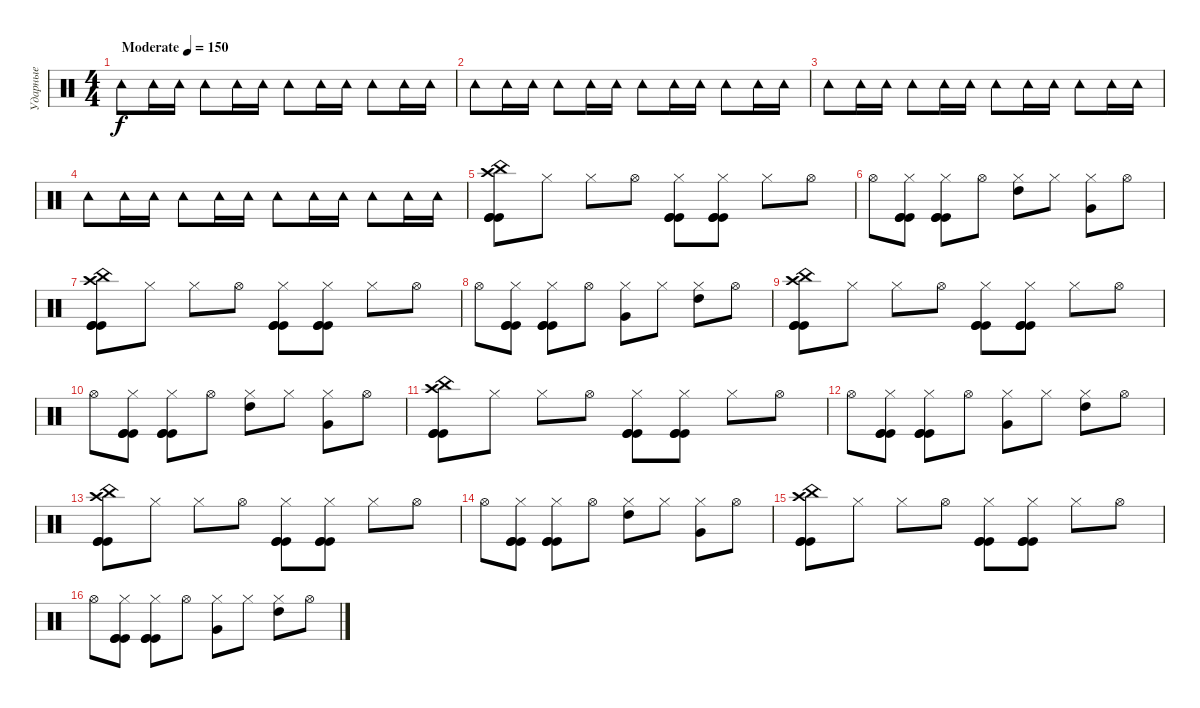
\track ("Ударные" "Ударные") {instrument percussion}
\staff {score}
\articulation defaults
\ts (4 4)
\tempo (150 "Moderate")
\clef neutral
\ks c "Tambourine (hit)".8{dy f} "Tambourine (hit)".16 "Tambourine (hit)".16 "Tambourine (hit)".8 "Tambourine (hit)".16 "Tambourine (hit)".16 "Tambourine (hit)".8 "Tambourine (hit)".16 "Tambourine (hit)".16 "Tambourine (hit)".8 "Tambourine (hit)".16 "Tambourine (hit)".16
|
"Tambourine (hit)".8 "Tambourine (hit)".16 "Tambourine (hit)".16 "Tambourine (hit)".8 "Tambourine (hit)".16 "Tambourine (hit)".16 "Tambourine (hit)".8 "Tambourine (hit)".16 "Tambourine (hit)".16 "Tambourine (hit)".8 "Tambourine (hit)".16 "Tambourine (hit)".16 |
"Tambourine (hit)".8 "Tambourine (hit)".16 "Tambourine (hit)".16 "Tambourine (hit)".8 "Tambourine (hit)".16 "Tambourine (hit)".16 "Tambourine (hit)".8 "Tambourine (hit)".16 "Tambourine (hit)".16 "Tambourine (hit)".8 "Tambourine (hit)".16 "Tambourine (hit)".16 |
"Tambourine (hit)".8 "Tambourine (hit)".16 "Tambourine (hit)".16 "Tambourine (hit)".8 "Tambourine (hit)".16 "Tambourine (hit)".16 "Tambourine (hit)".8 "Tambourine (hit)".16 "Tambourine (hit)".16 "Tambourine (hit)".8 "Tambourine (hit)".16 "Tambourine (hit)".16 |
("Crash high (hit)" "China (hit)" "Kick (hit)" "Kick (hit)" "Kick (hit)").8 "Hi-Hat (closed)".8 "Hi-Hat (closed)".8 "Hi-Hat (open)".8 ("Hi-Hat (closed)" "Kick (hit)" "Kick (hit)" "Kick (hit)").8 ("Hi-Hat (closed)" "Kick (hit)" "Kick (hit)" "Kick (hit)").8 "Hi-Hat (closed)".8 "Hi-Hat (open)".8 |
"Hi-Hat (open)".8 ("Hi-Hat (closed)" "Kick (hit)" "Kick (hit)" "Kick (hit)").8 ("Hi-Hat (closed)" "Kick (hit)" "Kick (hit)" "Kick (hit)").8 "Hi-Hat (open)".8 ("Hi-Hat (closed)" "High Tom (hit)").8 "Hi-Hat (closed)".8 ("Hi-Hat (closed)" "Very Low Tom (hit)").8 "Hi-Hat (open)".8 |
("Crash high (hit)" "China (hit)" "Kick (hit)" "Kick (hit)" "Kick (hit)").8 "Hi-Hat (closed)".8 "Hi-Hat (closed)".8 "Hi-Hat (open)".8 ("Hi-Hat (closed)" "Kick (hit)" "Kick (hit)" "Kick (hit)").8 ("Hi-Hat (closed)" "Kick (hit)" "Kick (hit)" "Kick (hit)").8 "Hi-Hat (closed)".8 "Hi-Hat (open)".8 |
"Hi-Hat (open)".8 ("Hi-Hat (closed)" "Kick (hit)" "Kick (hit)" "Kick (hit)").8 ("Hi-Hat (closed)" "Kick (hit)" "Kick (hit)" "Kick (hit)").8 "Hi-Hat (open)".8 ("Hi-Hat (closed)" "Very Low Tom (hit)").8 "Hi-Hat (closed)".8 ("Hi-Hat (closed)" "High Tom (hit)").8 "Hi-Hat (open)".8 |
("Crash high (hit)" "China (hit)" "Kick (hit)" "Kick (hit)" "Kick (hit)").8 "Hi-Hat (closed)".8 "Hi-Hat (closed)".8 "Hi-Hat (open)".8 ("Hi-Hat (closed)" "Kick (hit)" "Kick (hit)" "Kick (hit)").8 ("Hi-Hat (closed)" "Kick (hit)" "Kick (hit)" "Kick (hit)").8 "Hi-Hat (closed)".8 "Hi-Hat (open)".8 |
"Hi-Hat (open)".8 ("Hi-Hat (closed)" "Kick (hit)" "Kick (hit)" "Kick (hit)").8 ("Hi-Hat (closed)" "Kick (hit)" "Kick (hit)" "Kick (hit)").8 "Hi-Hat (open)".8 ("Hi-Hat (closed)" "High Tom (hit)").8 "Hi-Hat (closed)".8 ("Hi-Hat (closed)" "Very Low Tom (hit)").8 "Hi-Hat (open)".8 |
("Crash high (hit)" "China (hit)" "Kick (hit)" "Kick (hit)" "Kick (hit)").8 "Hi-Hat (closed)".8 "Hi-Hat (closed)".8 "Hi-Hat (open)".8 ("Hi-Hat (closed)" "Kick (hit)" "Kick (hit)" "Kick (hit)").8 ("Hi-Hat (closed)" "Kick (hit)" "Kick (hit)" "Kick (hit)").8 "Hi-Hat (closed)".8 "Hi-Hat (open)".8 |
"Hi-Hat (open)".8 ("Hi-Hat (closed)" "Kick (hit)" "Kick (hit)" "Kick (hit)").8 ("Hi-Hat (closed)" "Kick (hit)" "Kick (hit)" "Kick (hit)").8 "Hi-Hat (open)".8 ("Hi-Hat (closed)" "Very Low Tom (hit)").8 "Hi-Hat (closed)".8 ("Hi-Hat (closed)" "High Tom (hit)").8 "Hi-Hat (open)".8 |
("Crash high (hit)" "China (hit)" "Kick (hit)" "Kick (hit)" "Kick (hit)").8 "Hi-Hat (closed)".8 "Hi-Hat (closed)".8 "Hi-Hat (open)".8 ("Hi-Hat (closed)" "Kick (hit)" "Kick (hit)" "Kick (hit)").8 ("Hi-Hat (closed)" "Kick (hit)" "Kick (hit)" "Kick (hit)").8 "Hi-Hat (closed)".8 "Hi-Hat (open)".8 |
"Hi-Hat (open)".8 ("Hi-Hat (closed)" "Kick (hit)" "Kick (hit)" "Kick (hit)").8 ("Hi-Hat (closed)" "Kick (hit)" "Kick (hit)" "Kick (hit)").8 "Hi-Hat (open)".8 ("Hi-Hat (closed)" "High Tom (hit)").8 "Hi-Hat (closed)".8 ("Hi-Hat (closed)" "Very Low Tom (hit)").8 "Hi-Hat (open)".8 |
("Crash high (hit)" "China (hit)" "Kick (hit)" "Kick (hit)" "Kick (hit)").8 "Hi-Hat (closed)".8 "Hi-Hat (closed)".8 "Hi-Hat (open)".8 ("Hi-Hat (closed)" "Kick (hit)" "Kick (hit)" "Kick (hit)").8 ("Hi-Hat (closed)" "Kick (hit)" "Kick (hit)" "Kick (hit)").8 "Hi-Hat (closed)".8 "Hi-Hat (open)".8 |
"Hi-Hat (open)".8 ("Hi-Hat (closed)" "Kick (hit)" "Kick (hit)" "Kick (hit)").8 ("Hi-Hat (closed)" "Kick (hit)" "Kick (hit)" "Kick (hit)").8 "Hi-Hat (open)".8 ("Hi-Hat (closed)" "Very Low Tom (hit)").8 "Hi-Hat (closed)".8 ("Hi-Hat (closed)" "High Tom (hit)").8 "Hi-Hat (open)".8
